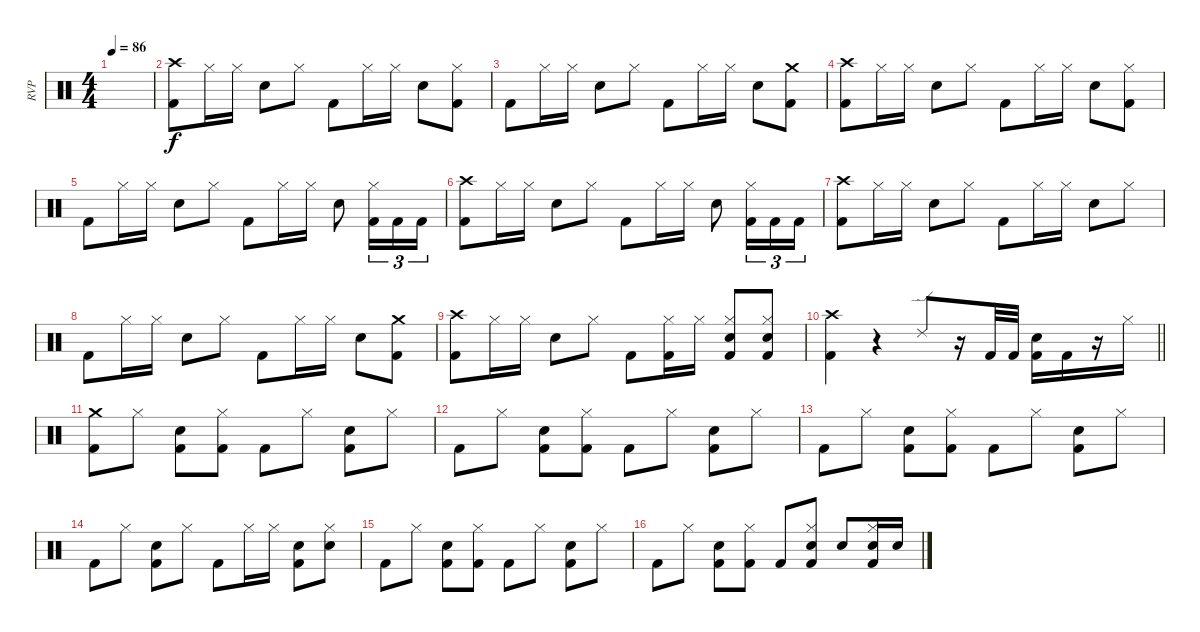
\track ("RVP" "RVP") {instrument percussion}
\staff {score}
\articulation defaults
\ts (4 4)
\tempo 86
\clef neutral
\ks c
|
("Crash high (hit)" "Kick (hit) 2").8 "Hi-Hat (closed)".16 "Hi-Hat (closed)".16 "Electric Snare (hit)".8 "Hi-Hat (closed)".8 "Kick (hit) 2".8 "Hi-Hat (closed)".16 "Hi-Hat (closed)".16 "Electric Snare (hit)".8 ("Hi-Hat (closed)" "Kick (hit) 2").8 |
"Kick (hit) 2".8 "Hi-Hat (closed)".16 "Hi-Hat (closed)".16 "Electric Snare (hit)".8 "Hi-Hat (closed)".8 "Kick (hit) 2".8 "Hi-Hat (closed)".16 "Hi-Hat (closed)".16 "Electric Snare (hit)".8 ("Crash medium (hit)" "Kick (hit) 2").8 |
("Crash high (hit)" "Kick (hit) 2").8 "Hi-Hat (closed)".16 "Hi-Hat (closed)".16 "Electric Snare (hit)".8 "Hi-Hat (closed)".8 "Kick (hit) 2".8 "Hi-Hat (closed)".16 "Hi-Hat (closed)".16 "Electric Snare (hit)".8 ("Hi-Hat (closed)" "Kick (hit) 2").8 |
"Kick (hit) 2".8 "Hi-Hat (closed)".16 "Hi-Hat (closed)".16 "Electric Snare (hit)".8 "Hi-Hat (closed)".8 "Kick (hit) 2".8 "Hi-Hat (closed)".16 "Hi-Hat (closed)".16 "Electric Snare (hit)".8 ("Hi-Hat (closed)" "Kick (hit) 2").16{tu (3 2)} "Kick (hit) 2".16{tu (3 2)} "Kick (hit) 2".16{tu (3 2)} |
("Crash high (hit)" "Kick (hit) 2").8 "Hi-Hat (closed)".16 "Hi-Hat (closed)".16 "Electric Snare (hit)".8 "Hi-Hat (closed)".8 "Kick (hit) 2".8 "Hi-Hat (closed)".16 "Hi-Hat (closed)".16 "Electric Snare (hit)".8 ("Hi-Hat (closed)" "Kick (hit) 2").16{tu (3 2)} "Kick (hit) 2".16{tu (3 2)} "Kick (hit) 2".16{tu (3 2)} |
("Crash high (hit)" "Kick (hit) 2").8 "Hi-Hat (closed)".16 "Hi-Hat (closed)".16 "Electric Snare (hit)".8 "Hi-Hat (closed)".8 "Kick (hit) 2".8 "Hi-Hat (closed)".16 "Hi-Hat (closed)".16 "Electric Snare (hit)".8 "Hi-Hat (closed)".8 |
"Kick (hit) 2".8 "Hi-Hat (closed)".16 "Hi-Hat (closed)".16 "Electric Snare (hit)".8 "Hi-Hat (closed)".8 "Kick (hit) 2".8 "Hi-Hat (closed)".16 "Hi-Hat (closed)".16 "Electric Snare (hit)".8 ("Crash medium (hit)" "Kick (hit) 2").8 |
("Crash high (hit)" "Kick (hit) 2").8 "Hi-Hat (closed)".16 "Hi-Hat (closed)".16 "Electric Snare (hit)".8 "Hi-Hat (closed)".8 "Kick (hit) 2".8 ("Hi-Hat (closed)" "Kick (hit) 2").16 "Hi-Hat (closed)".16 ("Hi-Hat (closed)" "Electric Snare (hit)" "Kick (hit) 2").8 ("Hi-Hat (closed)" "Electric Snare (hit)" "Kick (hit) 2").8 |
\barLineRight lightlight
("Crash high (hit)" "Kick (hit) 2").4 r.4 "Ride (edge) 2".8 r.16 "Kick (hit) 2".32 "Kick (hit) 2".32 ("Electric Snare (hit)" "Kick (hit) 2").16 "Kick (hit) 2".16 r.16 "Hi-Hat (closed)".16 |
("Crash medium (hit)" "Kick (hit) 2").8 "Hi-Hat (closed)".8 ("Electric Snare (hit)" "Kick (hit) 2").8 ("Hi-Hat (closed)" "Kick (hit) 2").8 "Kick (hit) 2".8 "Hi-Hat (closed)".8 ("Electric Snare (hit)" "Kick (hit) 2").8 "Hi-Hat (closed)".8 |
"Kick (hit) 2".8 "Hi-Hat (closed)".8 ("Electric Snare (hit)" "Kick (hit) 2").8 ("Hi-Hat (closed)" "Kick (hit) 2").8 "Kick (hit) 2".8 "Hi-Hat (closed)".8 ("Electric Snare (hit)" "Kick (hit) 2").8 "Hi-Hat (closed)".8 |
"Kick (hit) 2".8 "Hi-Hat (closed)".8 ("Electric Snare (hit)" "Kick (hit) 2").8 ("Hi-Hat (closed)" "Kick (hit) 2").8 "Kick (hit) 2".8 "Hi-Hat (closed)".8 ("Electric Snare (hit)" "Kick (hit) 2").8 "Hi-Hat (closed)".8 |
"Kick (hit) 2".8 "Hi-Hat (closed)".8 ("Electric Snare (hit)" "Kick (hit) 2").8 "Hi-Hat (closed)".8 "Kick (hit) 2".8 "Hi-Hat (closed)".16 "Hi-Hat (closed)".16 ("Electric Snare (hit)" "Kick (hit) 2").8 ("Hi-Hat (closed)" "Electric Snare (hit)").8 |
"Kick (hit) 2".8 "Hi-Hat (closed)".8 ("Electric Snare (hit)" "Kick (hit) 2").8 ("Hi-Hat (closed)" "Kick (hit) 2").8 "Kick (hit) 2".8 "Hi-Hat (closed)".8 ("Electric Snare (hit)" "Kick (hit) 2").8 "Hi-Hat (closed)".8 |
"Kick (hit) 2".8 "Hi-Hat (closed)".8 ("Electric Snare (hit)" "Kick (hit) 2").8 ("Hi-Hat (closed)" "Kick (hit) 2").8 "Kick (hit) 2".8 ("Hi-Hat (closed)" "Electric Snare (hit)" "Kick (hit) 2").8 "Electric Snare (hit)".8 ("Hi-Hat (closed)" "Electric Snare (hit)" "Kick (hit) 2").16 "Electric Snare (hit)".16
